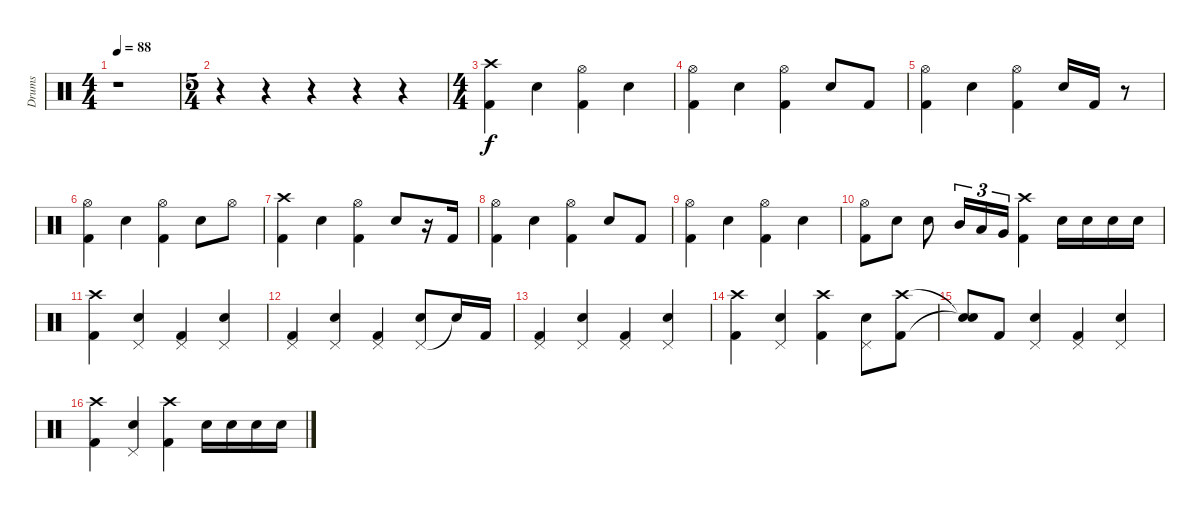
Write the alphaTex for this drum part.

\track ("Drums" "Drums") {instrument percussion}
\staff {score}
\articulation defaults
\ts (4 4)
\tempo 88
\clef neutral
\ks c
r.1{dy f} |
\ts (5 4)
r.4 r.4 r.4 r.4 r.4 |
\ts (4 4)
("Crash high (hit)" "Kick (hit) 2").4 "Electric Snare (hit)".4 ("Hi-Hat (open)" "Kick (hit) 2").4 "Electric Snare (hit)".4 |
("Hi-Hat (open)" "Kick (hit) 2").4 "Electric Snare (hit)".4 ("Hi-Hat (open)" "Kick (hit) 2").4 "Electric Snare (hit)".8 "Kick (hit) 2".8 |
("Hi-Hat (open)" "Kick (hit) 2").4 "Electric Snare (hit)".4 ("Hi-Hat (open)" "Kick (hit) 2").4 "Electric Snare (hit)".16 "Kick (hit) 2".16 r.8 |
("Hi-Hat (open)" "Kick (hit) 2").4 "Electric Snare (hit)".4 ("Hi-Hat (open)" "Kick (hit) 2").4 "Electric Snare (hit)".8 "Hi-Hat (open)".8 |
("Crash high (hit)" "Kick (hit) 2").4 "Electric Snare (hit)".4 ("Hi-Hat (open)" "Kick (hit) 2").4 "Electric Snare (hit)".8 r.16 "Kick (hit) 2".16 |
("Hi-Hat (open)" "Kick (hit) 2").4 "Electric Snare (hit)".4 ("Hi-Hat (open)" "Kick (hit) 2").4 "Electric Snare (hit)".8 "Kick (hit) 2".8 |
("Hi-Hat (open)" "Kick (hit) 2").4 "Electric Snare (hit)".4 ("Hi-Hat (open)" "Kick (hit) 2").4 "Electric Snare (hit)".4 |
("Hi-Hat (open)" "Kick (hit) 2").8 "Electric Snare (hit)".8 "Electric Snare (hit)".8 "Mid Tom (hit)".16{tu (3 2)} "Low Tom (hit)".16{tu (3 2)} "Very Low Tom (hit)".16{tu (3 2)} ("Crash high (hit)" "Kick (hit) 2").4 "Electric Snare (hit)".16 "Electric Snare (hit)".16 "Electric Snare (hit)".16 "Electric Snare (hit)".16 |
("Crash high (hit)" "Kick (hit) 2").4 ("Pedal Hi-Hat (hit)" "Electric Snare (hit)").4 ("Pedal Hi-Hat (hit)" "Kick (hit) 2").4 ("Pedal Hi-Hat (hit)" "Electric Snare (hit)").4 |
("Pedal Hi-Hat (hit)" "Kick (hit) 2").4 ("Pedal Hi-Hat (hit)" "Electric Snare (hit)").4 ("Pedal Hi-Hat (hit)" "Kick (hit) 2").4 ("Pedal Hi-Hat (hit)" "Electric Snare (hit)").8 "Snare (hit)"{t}.16 "Kick (hit) 2".16 |
("Pedal Hi-Hat (hit)" "Kick (hit) 2").4 ("Pedal Hi-Hat (hit)" "Electric Snare (hit)").4 ("Pedal Hi-Hat (hit)" "Kick (hit) 2").4 ("Pedal Hi-Hat (hit)" "Electric Snare (hit)").4 |
("Crash high (hit)" "Kick (hit) 2").4 ("Pedal Hi-Hat (hit)" "Electric Snare (hit)").4 ("Crash high (hit)" "Kick (hit) 2").4 ("Pedal Hi-Hat (hit)" "Electric Snare (hit)").8 ("Crash high (hit)" "Kick (hit) 2").8 |
("Snare (hit)"{t} "Snare (hit)"{t}).8 "Kick (hit) 2".8 ("Pedal Hi-Hat (hit)" "Electric Snare (hit)").4 ("Pedal Hi-Hat (hit)" "Kick (hit) 2").4 ("Pedal Hi-Hat (hit)" "Electric Snare (hit)").4 |
("Crash high (hit)" "Kick (hit) 2").4 ("Pedal Hi-Hat (hit)" "Electric Snare (hit)").4 ("Crash high (hit)" "Kick (hit) 2").4 "Electric Snare (hit)".16 "Electric Snare (hit)".16 "Electric Snare (hit)".16 "Electric Snare (hit)".16
